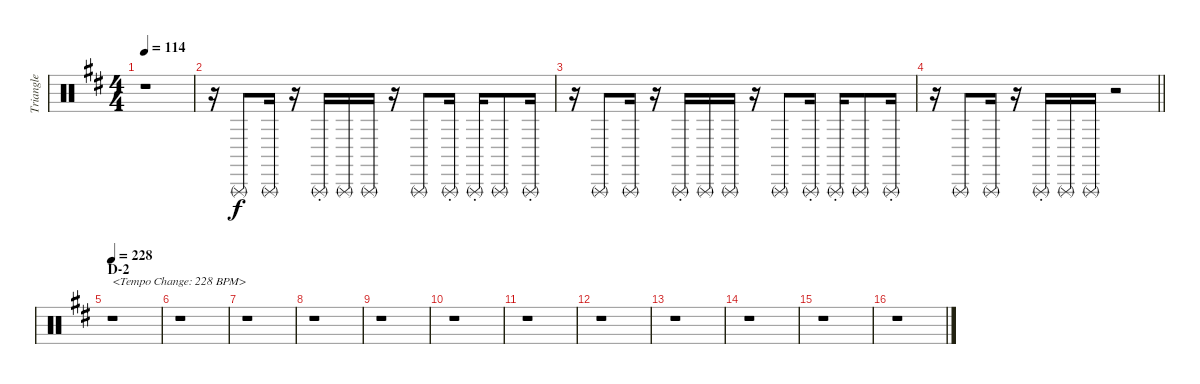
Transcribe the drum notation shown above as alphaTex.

\track ("Triangle" "Triangle") {instrument percussion}
\staff {score}
\articulation defaults
\ts (4 4)
\tempo 114
\clef neutral
\ks d
r.1{dy f} |
r.16 "Triangle (rnute)".8 "Triangle (rnute)".16 r.16 "Triangle (rnute)"{st}.16 "Triangle (rnute)".16 "Triangle (rnute)".16 r.16 "Triangle (rnute)".8 "Triangle (rnute)"{st}.16 "Triangle (rnute)"{st}.16 "Triangle (rnute)".8 "Triangle (rnute)"{st}.16 |
r.16 "Triangle (rnute)".8 "Triangle (rnute)".16 r.16 "Triangle (rnute)"{st}.16 "Triangle (rnute)".16 "Triangle (rnute)".16 r.16 "Triangle (rnute)".8 "Triangle (rnute)"{st}.16 "Triangle (rnute)"{st}.16 "Triangle (rnute)".8 "Triangle (rnute)"{st}.16 |
\barLineRight lightlight
r.16 "Triangle (rnute)".8 "Triangle (rnute)".16 r.16 "Triangle (rnute)"{st}.16 "Triangle (rnute)".16 "Triangle (rnute)".16 r.2 |
\section ("" "D-2")
\tempo 228
r.1{txt "<Tempo Change: 228 BPM>"} |
r.1 |
r.1 |
r.1 |
r.1 |
r.1 |
r.1 |
r.1 |
r.1 |
r.1 |
r.1 |
r.1
